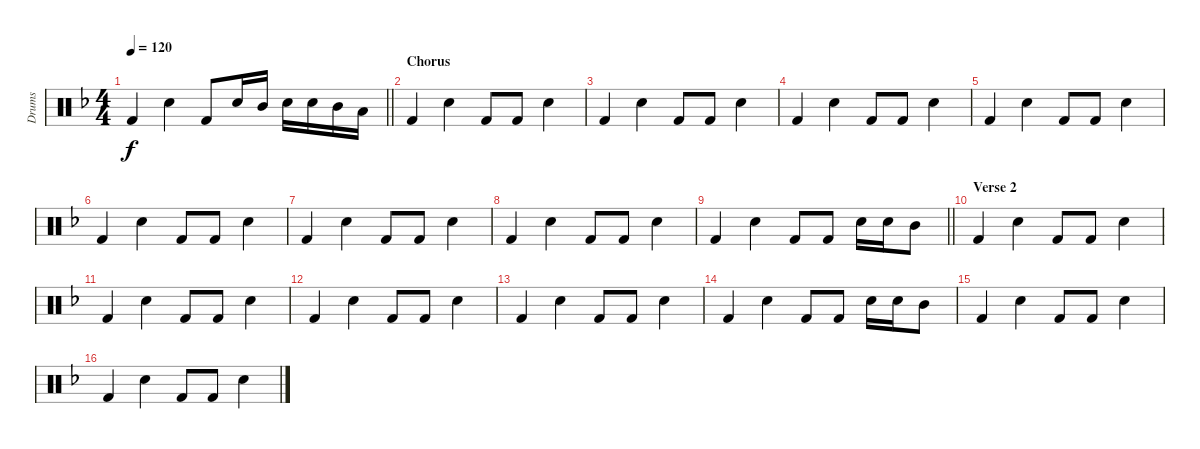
\track ("Drums" "Drums") {instrument percussion}
\staff {score}
\articulation defaults
\ts (4 4)
\tempo 120
\clef neutral
\barLineRight lightlight
\ks f "Kick (hit) 2".4{dy f} "Snare (hit) 2".4 "Kick (hit) 2".8 "Snare (hit) 2".16 "Mid Tom (hit)".16 "Snare (hit) 2".16 "Snare (hit) 2".16 "Mid Tom (hit)".16 "Low Tom (hit)".16
|
\section ("" "Chorus")
"Kick (hit) 2".4 "Snare (hit) 2".4 "Kick (hit) 2".8 "Kick (hit) 2".8 "Snare (hit) 2".4 |
"Kick (hit) 2".4 "Snare (hit) 2".4 "Kick (hit) 2".8 "Kick (hit) 2".8 "Snare (hit) 2".4 |
"Kick (hit) 2".4 "Snare (hit) 2".4 "Kick (hit) 2".8 "Kick (hit) 2".8 "Snare (hit) 2".4 |
"Kick (hit) 2".4 "Snare (hit) 2".4 "Kick (hit) 2".8 "Kick (hit) 2".8 "Snare (hit) 2".4 |
"Kick (hit) 2".4 "Snare (hit) 2".4 "Kick (hit) 2".8 "Kick (hit) 2".8 "Snare (hit) 2".4 |
"Kick (hit) 2".4 "Snare (hit) 2".4 "Kick (hit) 2".8 "Kick (hit) 2".8 "Snare (hit) 2".4 |
"Kick (hit) 2".4 "Snare (hit) 2".4 "Kick (hit) 2".8 "Kick (hit) 2".8 "Snare (hit) 2".4 |
\barLineRight lightlight "Kick (hit) 2".4 "Snare (hit) 2".4 "Kick (hit) 2".8 "Kick (hit) 2".8 "Snare (hit) 2".16 "Snare (hit) 2".16 "Mid Tom (hit)".8
|
\section ("" "Verse 2")
"Kick (hit) 2".4 "Snare (hit) 2".4 "Kick (hit) 2".8 "Kick (hit) 2".8 "Snare (hit) 2".4 |
"Kick (hit) 2".4 "Snare (hit) 2".4 "Kick (hit) 2".8 "Kick (hit) 2".8 "Snare (hit) 2".4 |
"Kick (hit) 2".4 "Snare (hit) 2".4 "Kick (hit) 2".8 "Kick (hit) 2".8 "Snare (hit) 2".4 |
"Kick (hit) 2".4 "Snare (hit) 2".4 "Kick (hit) 2".8 "Kick (hit) 2".8 "Snare (hit) 2".4 |
"Kick (hit) 2".4 "Snare (hit) 2".4 "Kick (hit) 2".8 "Kick (hit) 2".8 "Snare (hit) 2".16 "Snare (hit) 2".16 "Mid Tom (hit)".8 |
"Kick (hit) 2".4 "Snare (hit) 2".4 "Kick (hit) 2".8 "Kick (hit) 2".8 "Snare (hit) 2".4 |
"Kick (hit) 2".4 "Snare (hit) 2".4 "Kick (hit) 2".8 "Kick (hit) 2".8 "Snare (hit) 2".4
